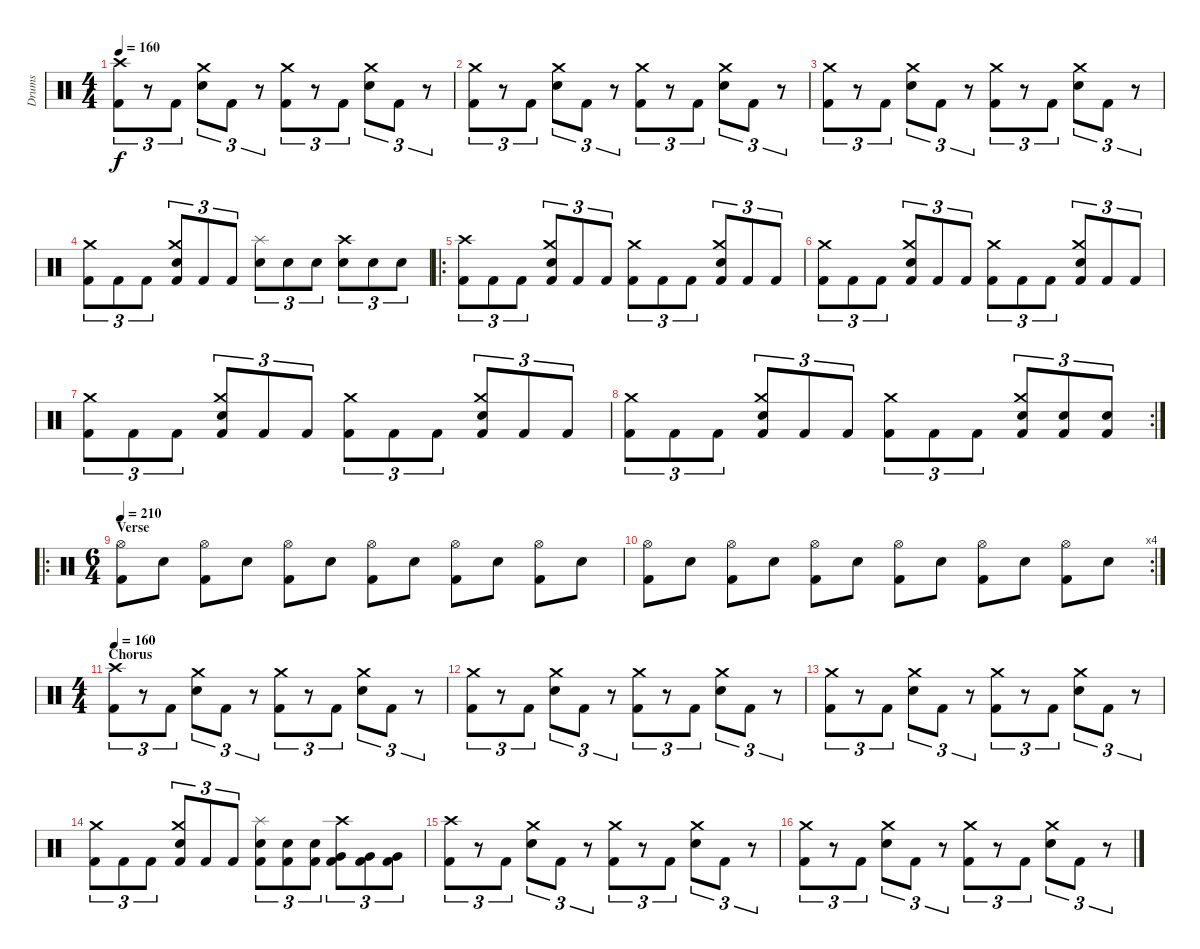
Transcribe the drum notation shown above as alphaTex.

\track ("Drums" "Drums") {instrument percussion}
\staff {score}
\articulation defaults
\ts (4 4)
\tempo 160
\clef neutral
\ks c
("Crash high (hit)" "Kick (hit) 2").8{tu (3 2) dy f} r.8{tu (3 2)} "Kick (hit) 2".8{tu (3 2)} ("Crash medium (hit)" "Electric Snare (hit)").8{tu (3 2)} "Kick (hit) 2".8{tu (3 2)} r.8{tu (3 2)} ("Crash medium (hit)" "Kick (hit) 2").8{tu (3 2)} r.8{tu (3 2)} "Kick (hit) 2".8{tu (3 2)} ("Crash medium (hit)" "Electric Snare (hit)").8{tu (3 2)} "Kick (hit) 2".8{tu (3 2)} r.8{tu (3 2)} |
("Crash medium (hit)" "Kick (hit) 2").8{tu (3 2)} r.8{tu (3 2)} "Kick (hit) 2".8{tu (3 2)} ("Crash medium (hit)" "Electric Snare (hit)").8{tu (3 2)} "Kick (hit) 2".8{tu (3 2)} r.8{tu (3 2)} ("Crash medium (hit)" "Kick (hit) 2").8{tu (3 2)} r.8{tu (3 2)} "Kick (hit) 2".8{tu (3 2)} ("Crash medium (hit)" "Electric Snare (hit)").8{tu (3 2)} "Kick (hit) 2".8{tu (3 2)} r.8{tu (3 2)} |
("Crash medium (hit)" "Kick (hit) 2").8{tu (3 2)} r.8{tu (3 2)} "Kick (hit) 2".8{tu (3 2)} ("Crash medium (hit)" "Electric Snare (hit)").8{tu (3 2)} "Kick (hit) 2".8{tu (3 2)} r.8{tu (3 2)} ("Crash medium (hit)" "Kick (hit) 2").8{tu (3 2)} r.8{tu (3 2)} "Kick (hit) 2".8{tu (3 2)} ("Crash medium (hit)" "Electric Snare (hit)").8{tu (3 2)} "Kick (hit) 2".8{tu (3 2)} r.8{tu (3 2)} |
("Crash medium (hit)" "Kick (hit) 2").8{tu (3 2)} "Kick (hit) 2".8{tu (3 2)} "Kick (hit) 2".8{tu (3 2)} ("Crash medium (hit)" "Electric Snare (hit)" "Kick (hit) 2").8{tu (3 2)} "Kick (hit) 2".8{tu (3 2)} "Kick (hit) 2".8{tu (3 2)} ("Splash (hit)" "Electric Snare (hit)").8{tu (3 2)} "Electric Snare (hit)".8{tu (3 2)} "Electric Snare (hit)".8{tu (3 2)} ("Crash high (hit)" "Electric Snare (hit)").8{tu (3 2)} "Electric Snare (hit)".8{tu (3 2)} "Electric Snare (hit)".8{tu (3 2)} |
\ro
("Crash high (hit)" "Kick (hit) 2").8{tu (3 2)} "Kick (hit) 2".8{tu (3 2)} "Kick (hit) 2".8{tu (3 2)} ("Crash medium (hit)" "Electric Snare (hit)" "Kick (hit) 2").8{tu (3 2)} "Kick (hit) 2".8{tu (3 2)} "Kick (hit) 2".8{tu (3 2)} ("Crash medium (hit)" "Kick (hit) 2").8{tu (3 2)} "Kick (hit) 2".8{tu (3 2)} "Kick (hit) 2".8{tu (3 2)} ("Crash medium (hit)" "Electric Snare (hit)" "Kick (hit) 2").8{tu (3 2)} "Kick (hit) 2".8{tu (3 2)} "Kick (hit) 2".8{tu (3 2)} |
("Crash medium (hit)" "Kick (hit) 2").8{tu (3 2)} "Kick (hit) 2".8{tu (3 2)} "Kick (hit) 2".8{tu (3 2)} ("Crash medium (hit)" "Electric Snare (hit)" "Kick (hit) 2").8{tu (3 2)} "Kick (hit) 2".8{tu (3 2)} "Kick (hit) 2".8{tu (3 2)} ("Crash medium (hit)" "Kick (hit) 2").8{tu (3 2)} "Kick (hit) 2".8{tu (3 2)} "Kick (hit) 2".8{tu (3 2)} ("Crash medium (hit)" "Electric Snare (hit)" "Kick (hit) 2").8{tu (3 2)} "Kick (hit) 2".8{tu (3 2)} "Kick (hit) 2".8{tu (3 2)} |
("Crash medium (hit)" "Kick (hit) 2").8{tu (3 2)} "Kick (hit) 2".8{tu (3 2)} "Kick (hit) 2".8{tu (3 2)} ("Crash medium (hit)" "Electric Snare (hit)" "Kick (hit) 2").8{tu (3 2)} "Kick (hit) 2".8{tu (3 2)} "Kick (hit) 2".8{tu (3 2)} ("Crash medium (hit)" "Kick (hit) 2").8{tu (3 2)} "Kick (hit) 2".8{tu (3 2)} "Kick (hit) 2".8{tu (3 2)} ("Crash medium (hit)" "Electric Snare (hit)" "Kick (hit) 2").8{tu (3 2)} "Kick (hit) 2".8{tu (3 2)} "Kick (hit) 2".8{tu (3 2)} |
\rc 2
("Crash medium (hit)" "Kick (hit) 2").8{tu (3 2)} "Kick (hit) 2".8{tu (3 2)} "Kick (hit) 2".8{tu (3 2)} ("Crash medium (hit)" "Electric Snare (hit)" "Kick (hit) 2").8{tu (3 2)} "Kick (hit) 2".8{tu (3 2)} "Kick (hit) 2".8{tu (3 2)} ("Crash medium (hit)" "Kick (hit) 2").8{tu (3 2)} "Kick (hit) 2".8{tu (3 2)} "Kick (hit) 2".8{tu (3 2)} ("Crash medium (hit)" "Electric Snare (hit)" "Kick (hit) 2").8{tu (3 2)} ("Electric Snare (hit)" "Kick (hit) 2").8{tu (3 2)} ("Electric Snare (hit)" "Kick (hit) 2").8{tu (3 2)} |
\ro
\ts (6 4)
\section ("" "Verse")
\tempo 210
("Hi-Hat (open)" "Kick (hit) 2").8 "Electric Snare (hit)".8 ("Hi-Hat (open)" "Kick (hit) 2").8 "Electric Snare (hit)".8 ("Hi-Hat (open)" "Kick (hit) 2").8 "Electric Snare (hit)".8 ("Hi-Hat (open)" "Kick (hit) 2").8 "Electric Snare (hit)".8 ("Hi-Hat (open)" "Kick (hit) 2").8 "Electric Snare (hit)".8 ("Hi-Hat (open)" "Kick (hit) 2").8 "Electric Snare (hit)".8 |
\rc 4
("Hi-Hat (open)" "Kick (hit) 2").8 "Electric Snare (hit)".8 ("Hi-Hat (open)" "Kick (hit) 2").8 "Electric Snare (hit)".8 ("Hi-Hat (open)" "Kick (hit) 2").8 "Electric Snare (hit)".8 ("Hi-Hat (open)" "Kick (hit) 2").8 "Electric Snare (hit)".8 ("Hi-Hat (open)" "Kick (hit) 2").8 "Electric Snare (hit)".8 ("Hi-Hat (open)" "Kick (hit) 2").8 "Electric Snare (hit)".8 |
\ts (4 4)
\section ("" "Chorus")
\tempo 160
("Crash high (hit)" "Kick (hit) 2").8{tu (3 2)} r.8{tu (3 2)} "Kick (hit) 2".8{tu (3 2)} ("Crash medium (hit)" "Electric Snare (hit)").8{tu (3 2)} "Kick (hit) 2".8{tu (3 2)} r.8{tu (3 2)} ("Crash medium (hit)" "Kick (hit) 2").8{tu (3 2)} r.8{tu (3 2)} "Kick (hit) 2".8{tu (3 2)} ("Crash medium (hit)" "Electric Snare (hit)").8{tu (3 2)} "Kick (hit) 2".8{tu (3 2)} r.8{tu (3 2)} |
("Crash medium (hit)" "Kick (hit) 2").8{tu (3 2)} r.8{tu (3 2)} "Kick (hit) 2".8{tu (3 2)} ("Crash medium (hit)" "Electric Snare (hit)").8{tu (3 2)} "Kick (hit) 2".8{tu (3 2)} r.8{tu (3 2)} ("Crash medium (hit)" "Kick (hit) 2").8{tu (3 2)} r.8{tu (3 2)} "Kick (hit) 2".8{tu (3 2)} ("Crash medium (hit)" "Electric Snare (hit)").8{tu (3 2)} "Kick (hit) 2".8{tu (3 2)} r.8{tu (3 2)} |
("Crash medium (hit)" "Kick (hit) 2").8{tu (3 2)} r.8{tu (3 2)} "Kick (hit) 2".8{tu (3 2)} ("Crash medium (hit)" "Electric Snare (hit)").8{tu (3 2)} "Kick (hit) 2".8{tu (3 2)} r.8{tu (3 2)} ("Crash medium (hit)" "Kick (hit) 2").8{tu (3 2)} r.8{tu (3 2)} "Kick (hit) 2".8{tu (3 2)} ("Crash medium (hit)" "Electric Snare (hit)").8{tu (3 2)} "Kick (hit) 2".8{tu (3 2)} r.8{tu (3 2)} |
("Crash medium (hit)" "Kick (hit) 2").8{tu (3 2)} "Kick (hit) 2".8{tu (3 2)} "Kick (hit) 2".8{tu (3 2)} ("Crash medium (hit)" "Electric Snare (hit)" "Kick (hit) 2").8{tu (3 2)} "Kick (hit) 2".8{tu (3 2)} "Kick (hit) 2".8{tu (3 2)} ("Splash (hit)" "Electric Snare (hit)" "Kick (hit) 2").8{tu (3 2)} ("Electric Snare (hit)" "Kick (hit) 2").8{tu (3 2)} ("Electric Snare (hit)" "Kick (hit) 2").8{tu (3 2)} ("Crash high (hit)" "Very Low Tom (hit)" "Kick (hit) 2").8{tu (3 2)} ("Very Low Tom (hit)" "Kick (hit) 2").8{tu (3 2)} ("Very Low Tom (hit)" "Kick (hit) 2").8{tu (3 2)} |
("Crash high (hit)" "Kick (hit) 2").8{tu (3 2)} r.8{tu (3 2)} "Kick (hit) 2".8{tu (3 2)} ("Crash medium (hit)" "Electric Snare (hit)").8{tu (3 2)} "Kick (hit) 2".8{tu (3 2)} r.8{tu (3 2)} ("Crash medium (hit)" "Kick (hit) 2").8{tu (3 2)} r.8{tu (3 2)} "Kick (hit) 2".8{tu (3 2)} ("Crash medium (hit)" "Electric Snare (hit)").8{tu (3 2)} "Kick (hit) 2".8{tu (3 2)} r.8{tu (3 2)} |
("Crash medium (hit)" "Kick (hit) 2").8{tu (3 2)} r.8{tu (3 2)} "Kick (hit) 2".8{tu (3 2)} ("Crash medium (hit)" "Electric Snare (hit)").8{tu (3 2)} "Kick (hit) 2".8{tu (3 2)} r.8{tu (3 2)} ("Crash medium (hit)" "Kick (hit) 2").8{tu (3 2)} r.8{tu (3 2)} "Kick (hit) 2".8{tu (3 2)} ("Crash medium (hit)" "Electric Snare (hit)").8{tu (3 2)} "Kick (hit) 2".8{tu (3 2)} r.8{tu (3 2)}
